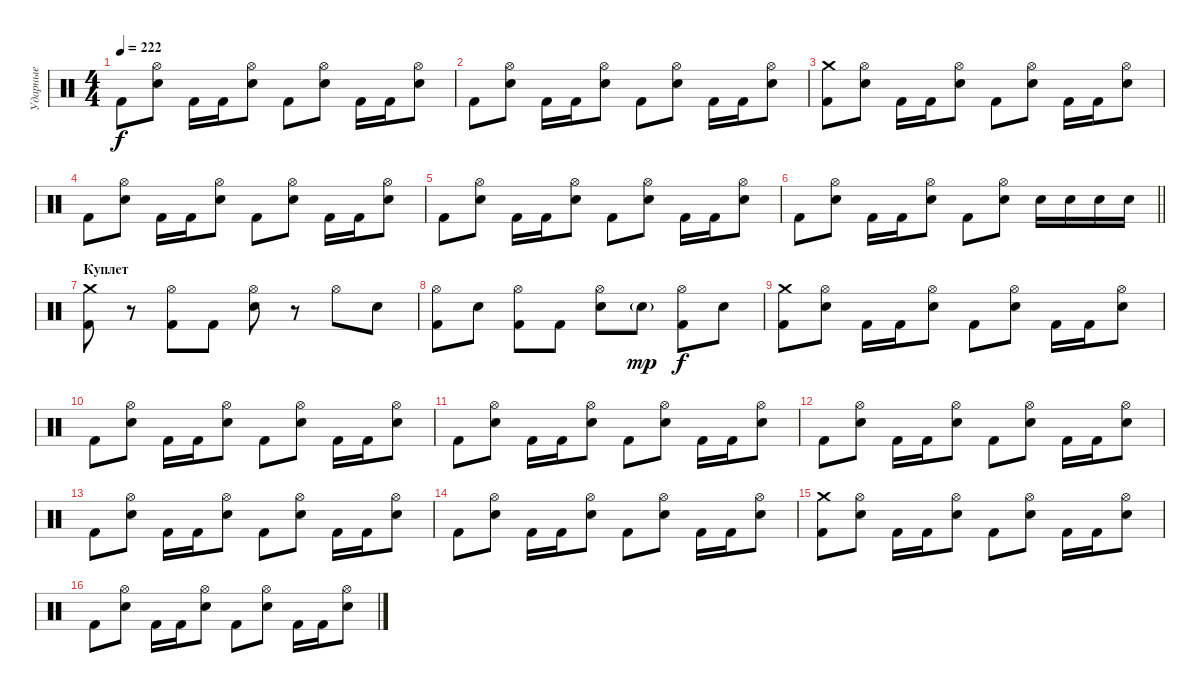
\track ("Ударные" "Ударные") {instrument percussion}
\staff {score}
\articulation defaults
\ts (4 4)
\tempo 222
\clef neutral
\ks c "Kick (hit) 2".8{dy f}
("Electric Snare (hit)" "Hi-Hat (open)").8 "Kick (hit) 2".16 "Kick (hit) 2".16 ("Electric Snare (hit)" "Hi-Hat (open)").8 "Kick (hit) 2".8 ("Electric Snare (hit)" "Hi-Hat (open)").8 "Kick (hit) 2".16 "Kick (hit) 2".16 ("Electric Snare (hit)" "Hi-Hat (open)").8 |
"Kick (hit) 2".8 ("Electric Snare (hit)" "Hi-Hat (open)").8 "Kick (hit) 2".16 "Kick (hit) 2".16 ("Electric Snare (hit)" "Hi-Hat (open)").8 "Kick (hit) 2".8 ("Electric Snare (hit)" "Hi-Hat (open)").8 "Kick (hit) 2".16 "Kick (hit) 2".16 ("Electric Snare (hit)" "Hi-Hat (open)").8 |
("Kick (hit) 2" "Crash medium (hit)").8 ("Electric Snare (hit)" "Hi-Hat (open)").8 "Kick (hit) 2".16 "Kick (hit) 2".16 ("Electric Snare (hit)" "Hi-Hat (open)").8 "Kick (hit) 2".8 ("Electric Snare (hit)" "Hi-Hat (open)").8 "Kick (hit) 2".16 "Kick (hit) 2".16 ("Electric Snare (hit)" "Hi-Hat (open)").8 |
"Kick (hit) 2".8 ("Electric Snare (hit)" "Hi-Hat (open)").8 "Kick (hit) 2".16 "Kick (hit) 2".16 ("Electric Snare (hit)" "Hi-Hat (open)").8 "Kick (hit) 2".8 ("Electric Snare (hit)" "Hi-Hat (open)").8 "Kick (hit) 2".16 "Kick (hit) 2".16 ("Electric Snare (hit)" "Hi-Hat (open)").8 |
"Kick (hit) 2".8 ("Electric Snare (hit)" "Hi-Hat (open)").8 "Kick (hit) 2".16 "Kick (hit) 2".16 ("Electric Snare (hit)" "Hi-Hat (open)").8 "Kick (hit) 2".8 ("Electric Snare (hit)" "Hi-Hat (open)").8 "Kick (hit) 2".16 "Kick (hit) 2".16 ("Electric Snare (hit)" "Hi-Hat (open)").8 |
\barLineRight lightlight "Kick (hit) 2".8
("Electric Snare (hit)" "Hi-Hat (open)").8 "Kick (hit) 2".16 "Kick (hit) 2".16 ("Electric Snare (hit)" "Hi-Hat (open)").8 "Kick (hit) 2".8 ("Electric Snare (hit)" "Hi-Hat (open)").8 "Electric Snare (hit)".16 "Electric Snare (hit)".16 "Electric Snare (hit)".16 "Electric Snare (hit)".16 |
\section ("" "Куплет")
("Kick (hit) 2" "Crash medium (hit)").8 r.8 ("Kick (hit) 2" "Hi-Hat (open)").8 "Kick (hit) 2".8 ("Electric Snare (hit)" "Hi-Hat (open)").8 r.8 "Hi-Hat (open)".8 "Electric Snare (hit)".8 |
("Kick (hit) 2" "Hi-Hat (open)").8 "Electric Snare (hit)".8 ("Kick (hit) 2" "Hi-Hat (open)").8 "Kick (hit) 2".8 ("Electric Snare (hit)" "Hi-Hat (open)").8 "Electric Snare (hit)"{g}.8{dy mp} ("Kick (hit) 2" "Hi-Hat (open)").8{dy f} "Electric Snare (hit)".8 |
("Kick (hit) 2" "Crash medium (hit)").8 ("Electric Snare (hit)" "Hi-Hat (open)").8 "Kick (hit) 2".16 "Kick (hit) 2".16 ("Electric Snare (hit)" "Hi-Hat (open)").8 "Kick (hit) 2".8 ("Electric Snare (hit)" "Hi-Hat (open)").8 "Kick (hit) 2".16 "Kick (hit) 2".16 ("Electric Snare (hit)" "Hi-Hat (open)").8 |
"Kick (hit) 2".8 ("Electric Snare (hit)" "Hi-Hat (open)").8 "Kick (hit) 2".16 "Kick (hit) 2".16 ("Electric Snare (hit)" "Hi-Hat (open)").8 "Kick (hit) 2".8 ("Electric Snare (hit)" "Hi-Hat (open)").8 "Kick (hit) 2".16 "Kick (hit) 2".16 ("Electric Snare (hit)" "Hi-Hat (open)").8 |
"Kick (hit) 2".8 ("Electric Snare (hit)" "Hi-Hat (open)").8 "Kick (hit) 2".16 "Kick (hit) 2".16 ("Electric Snare (hit)" "Hi-Hat (open)").8 "Kick (hit) 2".8 ("Electric Snare (hit)" "Hi-Hat (open)").8 "Kick (hit) 2".16 "Kick (hit) 2".16 ("Electric Snare (hit)" "Hi-Hat (open)").8 |
"Kick (hit) 2".8 ("Electric Snare (hit)" "Hi-Hat (open)").8 "Kick (hit) 2".16 "Kick (hit) 2".16 ("Electric Snare (hit)" "Hi-Hat (open)").8 "Kick (hit) 2".8 ("Electric Snare (hit)" "Hi-Hat (open)").8 "Kick (hit) 2".16 "Kick (hit) 2".16 ("Electric Snare (hit)" "Hi-Hat (open)").8 |
"Kick (hit) 2".8 ("Electric Snare (hit)" "Hi-Hat (open)").8 "Kick (hit) 2".16 "Kick (hit) 2".16 ("Electric Snare (hit)" "Hi-Hat (open)").8 "Kick (hit) 2".8 ("Electric Snare (hit)" "Hi-Hat (open)").8 "Kick (hit) 2".16 "Kick (hit) 2".16 ("Electric Snare (hit)" "Hi-Hat (open)").8 |
"Kick (hit) 2".8 ("Electric Snare (hit)" "Hi-Hat (open)").8 "Kick (hit) 2".16 "Kick (hit) 2".16 ("Electric Snare (hit)" "Hi-Hat (open)").8 "Kick (hit) 2".8 ("Electric Snare (hit)" "Hi-Hat (open)").8 "Kick (hit) 2".16 "Kick (hit) 2".16 ("Electric Snare (hit)" "Hi-Hat (open)").8 |
("Kick (hit) 2" "Crash medium (hit)").8 ("Electric Snare (hit)" "Hi-Hat (open)").8 "Kick (hit) 2".16 "Kick (hit) 2".16 ("Electric Snare (hit)" "Hi-Hat (open)").8 "Kick (hit) 2".8 ("Electric Snare (hit)" "Hi-Hat (open)").8 "Kick (hit) 2".16 "Kick (hit) 2".16 ("Electric Snare (hit)" "Hi-Hat (open)").8 |
"Kick (hit) 2".8 ("Electric Snare (hit)" "Hi-Hat (open)").8 "Kick (hit) 2".16 "Kick (hit) 2".16 ("Electric Snare (hit)" "Hi-Hat (open)").8 "Kick (hit) 2".8 ("Electric Snare (hit)" "Hi-Hat (open)").8 "Kick (hit) 2".16 "Kick (hit) 2".16 ("Electric Snare (hit)" "Hi-Hat (open)").8
